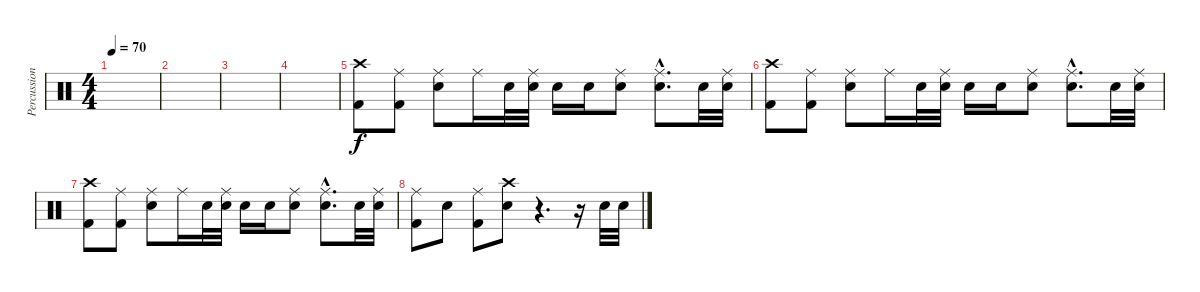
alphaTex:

\track ("Percussion" "Percussion") {instrument percussion}
\staff {score}
\articulation defaults
\ts (4 4)
\tempo 70
\clef neutral
\ks c
|
|
|
|
("Crash high (hit)" "Kick (hit) 2").8 ("Ride (middle)" "Kick (hit) 2").8 ("Ride (middle)" "Electric Snare (hit)").8 "Ride (middle)".16 "Electric Snare (hit)".32 ("Ride (middle)" "Electric Snare (hit)").32 "Electric Snare (hit)".16 "Electric Snare (hit)".16 ("Ride (middle)" "Electric Snare (hit)").8 ("Ride (middle)"{hac} "Electric Snare (hit)"{hac}).8{d} "Electric Snare (hit)".32 ("Ride (middle)" "Electric Snare (hit)").32 |
("Crash high (hit)" "Kick (hit) 2").8 ("Ride (middle)" "Kick (hit) 2").8 ("Ride (middle)" "Electric Snare (hit)").8 "Ride (middle)".16 "Electric Snare (hit)".32 ("Ride (middle)" "Electric Snare (hit)").32 "Electric Snare (hit)".16 "Electric Snare (hit)".16 ("Ride (middle)" "Electric Snare (hit)").8 ("Ride (middle)"{hac} "Electric Snare (hit)"{hac}).8{d} "Electric Snare (hit)".32 ("Ride (middle)" "Electric Snare (hit)").32 |
("Crash high (hit)" "Kick (hit) 2").8 ("Ride (middle)" "Kick (hit) 2").8 ("Ride (middle)" "Electric Snare (hit)").8 "Ride (middle)".16 "Electric Snare (hit)".32 ("Ride (middle)" "Electric Snare (hit)").32 "Electric Snare (hit)".16 "Electric Snare (hit)".16 ("Ride (middle)" "Electric Snare (hit)").8 ("Ride (middle)"{hac} "Electric Snare (hit)"{hac}).8{d} "Electric Snare (hit)".32 ("Ride (middle)" "Electric Snare (hit)").32 |
("Ride (middle)" "Kick (hit) 2").8 "Electric Snare (hit)".8 ("Ride (middle)" "Kick (hit) 2").8 ("Crash high (hit)" "Electric Snare (hit)").8 r.4{d} r.16 "Electric Snare (hit)".32 "Electric Snare (hit)".32
